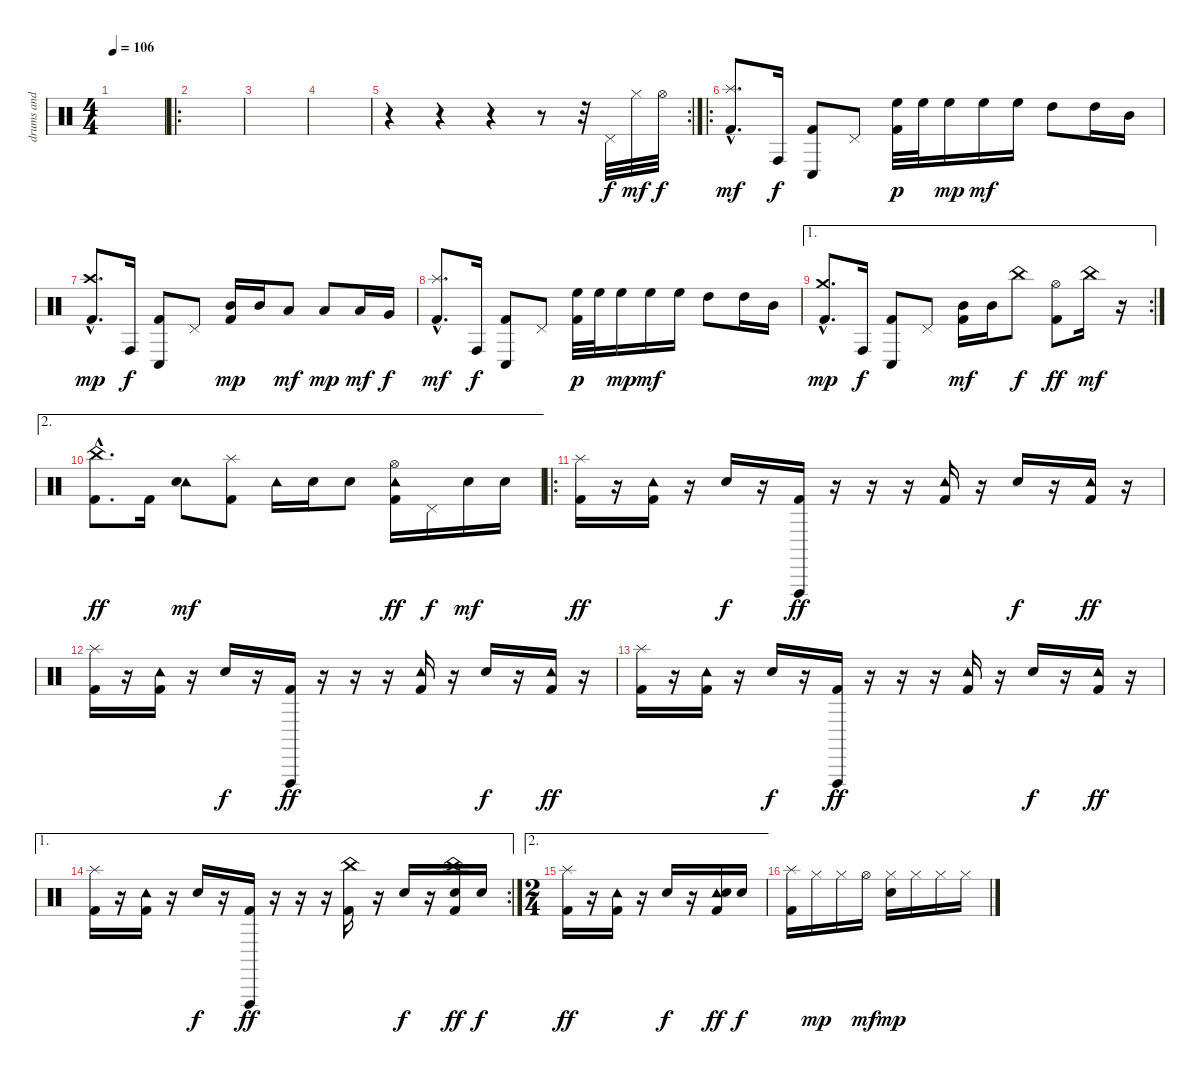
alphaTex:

\track ("drums and percussion" "drums and ") {instrument percussion}
\staff {score}
\articulation defaults
\ts (4 4)
\tempo 106
\clef neutral
\ks c
|
\ro
|
|
|
\rc 2
r.4 r.4 r.4 r.8 r.32 "Pedal Hi-Hat (hit)".32 "Hi-Hat (closed)".32{dy mf} "Hi-Hat (open)".32{dy f} |
\ro
("Splash (hit)"{hac} "Kick (hit) 2"{hac}).8{d dy mf} "Conga high (hit)".16{dy f} ("Conga low (hit)" "Kick (hit) 2").8 "Pedal Hi-Hat (hit)".8 ("High Floor Tom (hit)" "Kick (hit) 2").32{dy p} "High Floor Tom (hit)".32 "High Floor Tom (hit)".16{dy mp} "High Floor Tom (hit)".16{dy mf} "High Floor Tom (hit)".16 "High Tom (hit)".8 "High Tom (hit)".16 "Mid Tom (hit)".16 |
("Crash high (hit)"{hac} "Kick (hit) 2"{hac}).8{d dy mp} "Conga high (hit)".16{dy f} ("Conga low (hit)" "Kick (hit) 2").8 "Pedal Hi-Hat (hit)".8 ("Mid Tom (hit)" "Kick (hit) 2").16{dy mp} "Mid Tom (hit)".16 "Low Tom (hit)".8{dy mf} "Low Tom (hit)".8{dy mp} "Low Tom (hit)".16{dy mf} "Very Low Tom (hit)".16{dy f} |
("Splash (hit)"{hac} "Kick (hit) 2"{hac}).8{d dy mf} "Conga high (hit)".16{dy f} ("Conga low (hit)" "Kick (hit) 2").8 "Pedal Hi-Hat (hit)".8 ("High Floor Tom (hit)" "Kick (hit) 2").32{dy p} "High Floor Tom (hit)".32 "High Floor Tom (hit)".16{dy mp} "High Floor Tom (hit)".16{dy mf} "High Floor Tom (hit)".16 "High Tom (hit)".8 "High Tom (hit)".16 "Mid Tom (hit)".16 |
\ae 1
\rc 2
("Crash medium (hit)"{hac} "Kick (hit) 2"{hac}).8{d dy mp} "Conga high (hit)".16{dy f} ("Conga low (hit)" "Kick (hit) 2").8 "Pedal Hi-Hat (hit)".8 ("Mid Tom (hit)" "Kick (hit) 2").16{dy mf} "Mid Tom (hit)".16 "China (hit)".8{dy f} ("Hi-Hat (open)" "Kick (hit) 2").8{dy ff} "China (hit)".16{dy mf} r.16 |
\ae 2
("China (hit)"{hac} "Kick (hit) 2"{hac}).8{d dy ff} "Kick (hit) 2".16 ("Tambourine (hit)" "Electric Snare (hit)").8{dy mf} ("Splash (hit)" "Kick (hit) 2").8 "Tambourine (hit)".16 "Electric Snare (hit)".16 "Electric Snare (hit)".8 ("Tambourine (hit)" "Hi-Hat (open)" "Kick (hit) 2").16{dy ff} "Pedal Hi-Hat (hit)".16{dy f} "Electric Snare (hit)".16{dy mf} "Electric Snare (hit)".16 |
\ro
("Splash (hit)" "Kick (hit) 2").16{dy ff} r.16 ("Tambourine (hit)" "Kick (hit) 2").16 r.16 "Electric Snare (hit)".16{dy f} r.16 ("Vibraslap (hit)" "Kick (hit) 2").16{dy ff} r.16 r.16 r.16 ("Tambourine (hit)" "Kick (hit) 2").16 r.16 "Electric Snare (hit)".16{dy f} r.16 ("Tambourine (hit)" "Kick (hit) 2").16{dy ff} r.16 |
("Splash (hit)" "Kick (hit) 2").16 r.16 ("Tambourine (hit)" "Kick (hit) 2").16 r.16 "Electric Snare (hit)".16{dy f} r.16 ("Vibraslap (hit)" "Kick (hit) 2").16{dy ff} r.16 r.16 r.16 ("Tambourine (hit)" "Kick (hit) 2").16 r.16 "Electric Snare (hit)".16{dy f} r.16 ("Tambourine (hit)" "Kick (hit) 2").16{dy ff} r.16 |
("Splash (hit)" "Kick (hit) 2").16 r.16 ("Tambourine (hit)" "Kick (hit) 2").16 r.16 "Electric Snare (hit)".16{dy f} r.16 ("Vibraslap (hit)" "Kick (hit) 2").16{dy ff} r.16 r.16 r.16 ("Tambourine (hit)" "Kick (hit) 2").16 r.16 "Electric Snare (hit)".16{dy f} r.16 ("Tambourine (hit)" "Kick (hit) 2").16{dy ff} r.16 |
\ae 1
\rc 2
("Splash (hit)" "Kick (hit) 2").16 r.16 ("Tambourine (hit)" "Kick (hit) 2").16 r.16 "Electric Snare (hit)".16{dy f} r.16 ("Vibraslap (hit)" "Kick (hit) 2").16{dy ff} r.16 r.16 r.16 ("China (hit)" "Kick (hit) 2").16 r.16 "Electric Snare (hit)".16{dy f} r.16 ("China (hit)" "Electric Snare (hit)" "Kick (hit) 2").16{dy ff} "Electric Snare (hit)".16{dy f} |
\ae 2
\ts (2 4)
("Splash (hit)" "Kick (hit) 2").16{dy ff} r.16 ("Tambourine (hit)" "Kick (hit) 2").16 r.16 "Electric Snare (hit)".16{dy f} r.16 ("Tambourine (hit)" "Electric Snare (hit)" "Kick (hit) 2").16{dy ff} "Electric Snare (hit)".16{dy f} |
("Splash (hit)" "Kick (hit) 2").16 "Hi-Hat (closed)".16{dy mp} "Hi-Hat (closed)".16 "Hi-Hat (open)".16{dy mf} ("Hi-Hat (closed)" "Electric Snare (hit)").16{dy mp} "Hi-Hat (closed)".16 "Hi-Hat (closed)".16 "Hi-Hat (closed)".16
